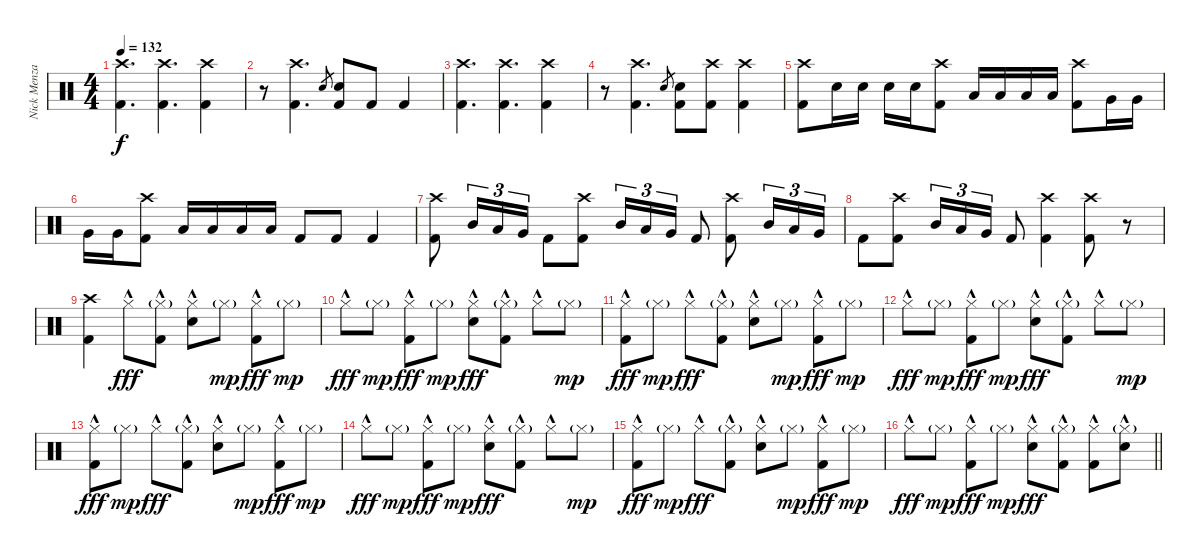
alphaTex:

\track ("Nick Menza" "Nick Menza") {instrument percussion}
\staff {score}
\articulation defaults
\ts (4 4)
\tempo 132
\clef neutral
\ks c
("Crash high (hit)" "Kick (hit) 2").4{d dy f} ("Crash high (hit)" "Kick (hit) 2").4{d} ("Crash high (hit)" "Kick (hit) 2").4 |
r.8 ("Crash high (hit)" "Kick (hit) 2").4{d} "Snare (hit) 2".8{gr} ("Snare (hit) 2" "Kick (hit) 2").8 "Kick (hit) 2".8 "Kick (hit) 2".4 |
("Crash high (hit)" "Kick (hit) 2").4{d} ("Crash high (hit)" "Kick (hit) 2").4{d} ("Crash high (hit)" "Kick (hit) 2").4 |
r.8 ("Crash high (hit)" "Kick (hit) 2").4{d} "Snare (hit) 2".8{gr} ("Snare (hit) 2" "Kick (hit) 2").8 ("Crash high (hit)" "Kick (hit) 2").8 ("Crash high (hit)" "Kick (hit) 2").4 |
("Crash high (hit)" "Kick (hit) 2").8 "Snare (hit) 2".16 "Snare (hit) 2".16 "Snare (hit) 2".16 "Snare (hit) 2".16 ("Crash high (hit)" "Kick (hit) 2").8 "Low Tom (hit)".16 "Low Tom (hit)".16 "Low Tom (hit)".16 "Low Tom (hit)".16 ("Crash high (hit)" "Kick (hit) 2").8 "Very Low Tom (hit)".16 "Very Low Tom (hit)".16 |
"Very Low Tom (hit)".16 "Very Low Tom (hit)".16 ("Crash high (hit)" "Kick (hit) 2").8 "Low Floor Tom (hit)".16 "Low Floor Tom (hit)".16 "Low Floor Tom (hit)".16 "Low Floor Tom (hit)".16 "Kick (hit) 2".8 "Kick (hit) 2".8 "Kick (hit) 2".4 |
("Crash high (hit)" "Kick (hit) 2").8 "Mid Tom (hit)".16{tu (3 2)} "Low Tom (hit)".16{tu (3 2)} "Very Low Tom (hit)".16{tu (3 2)} "Kick (hit) 2".8 ("Crash high (hit)" "Kick (hit) 2").8 "Mid Tom (hit)".16{tu (3 2)} "Low Tom (hit)".16{tu (3 2)} "Very Low Tom (hit)".16{tu (3 2)} "Kick (hit) 2".8 ("Crash high (hit)" "Kick (hit) 2").8 "Mid Tom (hit)".16{tu (3 2)} "Low Tom (hit)".16{tu (3 2)} "Very Low Tom (hit)".16{tu (3 2)} |
"Kick (hit) 2".8 ("Crash high (hit)" "Kick (hit) 2").8 "Mid Tom (hit)".16{tu (3 2)} "Low Tom (hit)".16{tu (3 2)} "Very Low Tom (hit)".16{tu (3 2)} "Kick (hit) 2".8 ("Crash high (hit)" "Kick (hit) 2").4 ("Crash high (hit)" "Kick (hit) 2").8 r.8 |
("Crash high (hit)" "Kick (hit) 2").4 "Hi-Hat (closed)"{hac}.8{dy fff} ("Hi-Hat (closed)"{g} "Kick (hit) 2"{hac}).8 ("Hi-Hat (closed)"{hac} "Snare (hit) 2"{hac}).8 "Hi-Hat (closed)"{g}.8{dy mp} ("Hi-Hat (closed)"{hac} "Kick (hit) 2"{hac}).8{dy fff} "Hi-Hat (closed)"{g}.8{dy mp} |
"Hi-Hat (closed)"{hac}.8{dy fff} "Hi-Hat (closed)"{g}.8{dy mp} ("Hi-Hat (closed)"{hac} "Kick (hit) 2"{hac}).8{dy fff} "Hi-Hat (closed)"{g}.8{dy mp} ("Hi-Hat (closed)"{hac} "Snare (hit) 2"{hac}).8{dy fff} ("Hi-Hat (closed)"{g} "Kick (hit) 2"{hac}).8 "Hi-Hat (closed)"{hac}.8 "Hi-Hat (closed)"{g}.8{dy mp} |
("Hi-Hat (closed)"{hac} "Kick (hit) 2"{hac}).8{dy fff} "Hi-Hat (closed)"{g}.8{dy mp} "Hi-Hat (closed)"{hac}.8{dy fff} ("Hi-Hat (closed)"{g} "Kick (hit) 2"{hac}).8 ("Hi-Hat (closed)"{hac} "Snare (hit) 2"{hac}).8 "Hi-Hat (closed)"{g}.8{dy mp} ("Hi-Hat (closed)"{hac} "Kick (hit) 2"{hac}).8{dy fff} "Hi-Hat (closed)"{g}.8{dy mp} |
"Hi-Hat (closed)"{hac}.8{dy fff} "Hi-Hat (closed)"{g}.8{dy mp} ("Hi-Hat (closed)"{hac} "Kick (hit) 2"{hac}).8{dy fff} "Hi-Hat (closed)"{g}.8{dy mp} ("Hi-Hat (closed)"{hac} "Snare (hit) 2"{hac}).8{dy fff} ("Hi-Hat (closed)"{g} "Kick (hit) 2"{hac}).8 "Hi-Hat (closed)"{hac}.8 "Hi-Hat (closed)"{g}.8{dy mp} |
("Hi-Hat (closed)"{hac} "Kick (hit) 2"{hac}).8{dy fff} "Hi-Hat (closed)"{g}.8{dy mp} "Hi-Hat (closed)"{hac}.8{dy fff} ("Hi-Hat (closed)"{g} "Kick (hit) 2"{hac}).8 ("Hi-Hat (closed)"{hac} "Snare (hit) 2"{hac}).8 "Hi-Hat (closed)"{g}.8{dy mp} ("Hi-Hat (closed)"{hac} "Kick (hit) 2"{hac}).8{dy fff} "Hi-Hat (closed)"{g}.8{dy mp} |
"Hi-Hat (closed)"{hac}.8{dy fff} "Hi-Hat (closed)"{g}.8{dy mp} ("Hi-Hat (closed)"{hac} "Kick (hit) 2"{hac}).8{dy fff} "Hi-Hat (closed)"{g}.8{dy mp} ("Hi-Hat (closed)"{hac} "Snare (hit) 2"{hac}).8{dy fff} ("Hi-Hat (closed)"{g} "Kick (hit) 2"{hac}).8 "Hi-Hat (closed)"{hac}.8 "Hi-Hat (closed)"{g}.8{dy mp} |
("Hi-Hat (closed)"{hac} "Kick (hit) 2"{hac}).8{dy fff} "Hi-Hat (closed)"{g}.8{dy mp} "Hi-Hat (closed)"{hac}.8{dy fff} ("Hi-Hat (closed)"{g} "Kick (hit) 2"{hac}).8 ("Hi-Hat (closed)"{hac} "Snare (hit) 2"{hac}).8 "Hi-Hat (closed)"{g}.8{dy mp} ("Hi-Hat (closed)"{hac} "Kick (hit) 2"{hac}).8{dy fff} "Hi-Hat (closed)"{g}.8{dy mp} |
\barLineRight lightlight "Hi-Hat (closed)"{hac}.8{dy fff} "Hi-Hat (closed)"{g}.8{dy mp}
("Hi-Hat (closed)"{hac} "Kick (hit) 2"{hac}).8{dy fff} "Hi-Hat (closed)"{g}.8{dy mp} ("Hi-Hat (closed)"{hac} "Snare (hit) 2"{hac}).8{dy fff} ("Hi-Hat (closed)"{g} "Kick (hit) 2"{hac}).8 ("Hi-Hat (closed)"{hac} "Kick (hit) 2"{hac}).8 ("Hi-Hat (closed)"{g} "Snare (hit) 2"{hac}).8
